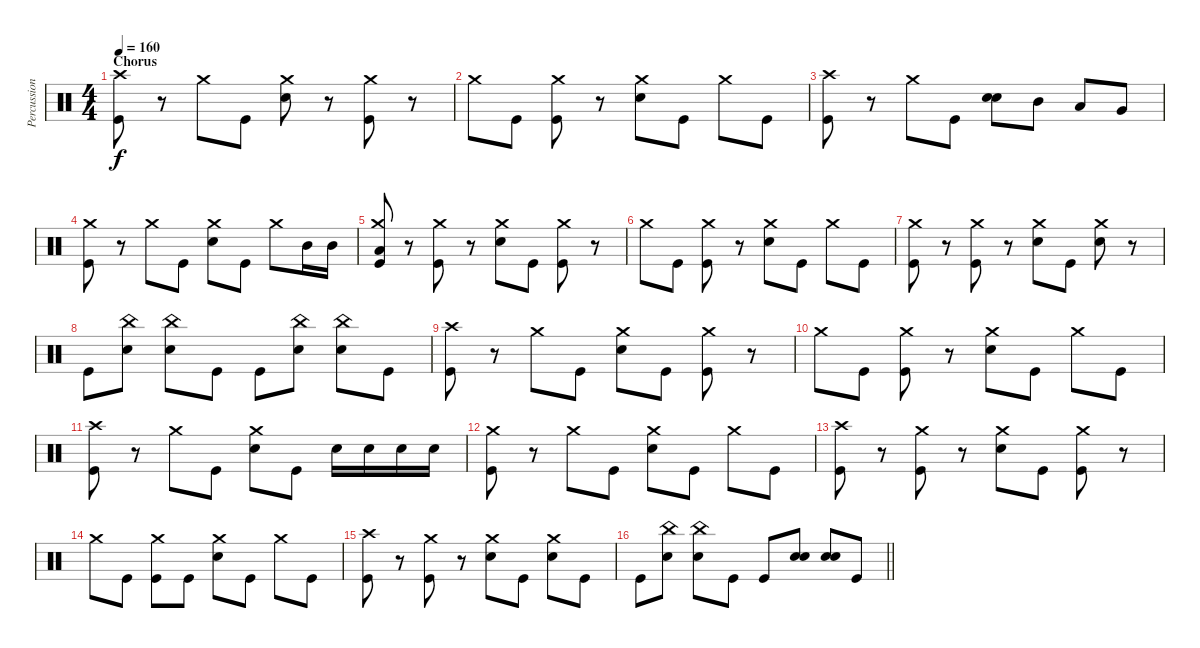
\track ("Percussion" "Percussion") {instrument percussion}
\staff {score}
\articulation defaults
\ts (4 4)
\section ("" "Chorus")
\tempo 160
\clef neutral
\ks c
("Crash high (hit)" "Kick (hit)").8{dy f} r.8 "Crash medium (hit)".8 "Kick (hit)".8 ("Crash medium (hit)" "Snare (hit) 2").8 r.8 ("Crash medium (hit)" "Kick (hit)").8 r.8 |
"Crash medium (hit)".8 "Kick (hit)".8 ("Crash medium (hit)" "Kick (hit)").8 r.8 ("Crash medium (hit)" "Snare (hit) 2").8 "Kick (hit)".8 "Crash medium (hit)".8 "Kick (hit)".8 |
("Crash high (hit)" "Kick (hit)").8 r.8 "Crash medium (hit)".8 "Kick (hit)".8 ("Snare (hit) 2" "Snare (hit) 2").8{bd 60} "Mid Tom (hit)".8 "Low Tom (hit)".8 "Very Low Tom (hit)".8 |
("Crash medium (hit)" "Kick (hit)").8 r.8 "Crash medium (hit)".8 "Kick (hit)".8 ("Crash medium (hit)" "Snare (hit) 2").8 "Kick (hit)".8 "Crash medium (hit)".8 "Mid Tom (hit)".16 "Mid Tom (hit)".16 |
("Crash medium (hit)" "Low Tom (hit)" "Kick (hit)").8 r.8 ("Crash medium (hit)" "Kick (hit)").8 r.8 ("Crash medium (hit)" "Snare (hit) 2").8 "Kick (hit)".8 ("Crash medium (hit)" "Kick (hit)").8 r.8 |
"Crash medium (hit)".8 "Kick (hit)".8 ("Crash medium (hit)" "Kick (hit)").8 r.8 ("Crash medium (hit)" "Snare (hit) 2").8 "Kick (hit)".8 "Crash medium (hit)".8 "Kick (hit)".8 |
("Crash medium (hit)" "Kick (hit)").8 r.8 ("Crash medium (hit)" "Kick (hit)").8 r.8 ("Crash medium (hit)" "Snare (hit) 2").8 "Kick (hit)".8 ("Crash medium (hit)" "Snare (hit) 2").8 r.8 |
"Kick (hit)".8 ("China (hit)" "Snare (hit) 2").8 ("China (hit)" "Snare (hit) 2").8 "Kick (hit)".8 "Kick (hit)".8 ("China (hit)" "Snare (hit) 2").8 ("China (hit)" "Snare (hit) 2").8 "Kick (hit)".8 |
("Crash high (hit)" "Kick (hit)").8 r.8 "Crash medium (hit)".8 "Kick (hit)".8 ("Crash medium (hit)" "Snare (hit) 2").8 "Kick (hit)".8 ("Crash medium (hit)" "Kick (hit)").8 r.8 |
"Crash medium (hit)".8 "Kick (hit)".8 ("Crash medium (hit)" "Kick (hit)").8 r.8 ("Crash medium (hit)" "Snare (hit) 2").8 "Kick (hit)".8 "Crash medium (hit)".8 "Kick (hit)".8 |
("Crash high (hit)" "Kick (hit)").8 r.8 "Crash medium (hit)".8 "Kick (hit)".8 ("Crash medium (hit)" "Snare (hit) 2").8 "Kick (hit)".8 "Snare (hit) 2".16 "Snare (hit) 2".16 "Snare (hit) 2".16 "Snare (hit) 2".16 |
("Crash medium (hit)" "Kick (hit)").8 r.8 "Crash medium (hit)".8 "Kick (hit)".8 ("Crash medium (hit)" "Snare (hit) 2").8 "Kick (hit)".8 "Crash medium (hit)".8 "Kick (hit)".8 |
("Crash high (hit)" "Kick (hit)").8 r.8 ("Crash medium (hit)" "Kick (hit)").8 r.8 ("Crash medium (hit)" "Snare (hit) 2").8 "Kick (hit)".8 ("Crash medium (hit)" "Kick (hit)").8 r.8 |
"Crash medium (hit)".8 "Kick (hit)".8 ("Crash medium (hit)" "Kick (hit)").8 "Kick (hit)".8 ("Crash medium (hit)" "Snare (hit) 2").8 "Kick (hit)".8 "Crash medium (hit)".8 "Kick (hit)".8 |
("Crash high (hit)" "Kick (hit)").8 r.8 ("Crash medium (hit)" "Kick (hit)").8 r.8 ("Crash medium (hit)" "Snare (hit) 2").8 "Kick (hit)".8 ("Crash medium (hit)" "Snare (hit) 2").8 "Kick (hit)".8 |
\barLineRight lightlight "Kick (hit)".8
("China (hit)" "Snare (hit) 2").8 ("China (hit)" "Snare (hit) 2").8 "Kick (hit)".8 "Kick (hit)".8 ("Snare (hit) 2" "Snare (hit) 2").8{bd 120} ("Snare (hit) 2" "Snare (hit) 2").8{bd 120} "Kick (hit)".8
